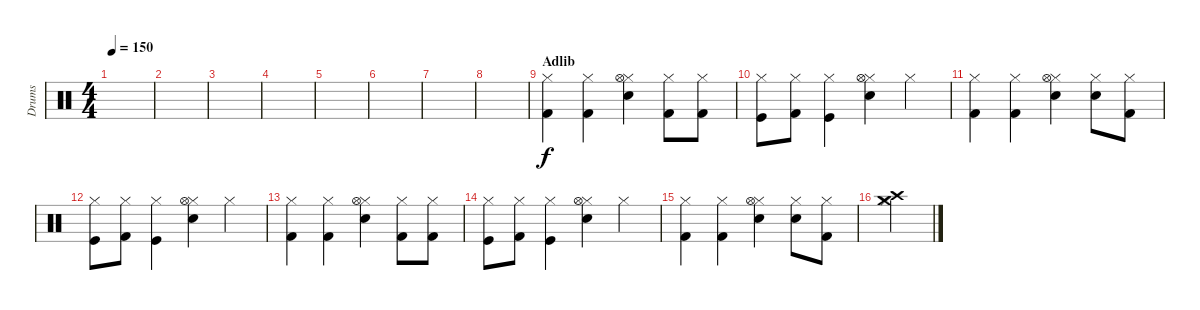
\track ("Drums" "Drums") {instrument percussion}
\staff {score}
\articulation defaults
\ts (4 4)
\tempo 150
\clef neutral
\ks c
|
|
|
|
|
|
|
|
\section ("" "Adlib")
("Kick (hit) 2" "Hi-Hat (closed)").4 ("Kick (hit) 2" "Hi-Hat (closed)").4 ("Snare (hit) 2" "Hi-Hat (closed)" "Hi-Hat (open)").4 ("Kick (hit) 2" "Hi-Hat (closed)").8 ("Kick (hit) 2" "Hi-Hat (closed)").8 |
("Kick (hit)" "Hi-Hat (closed)").8 ("Kick (hit) 2" "Hi-Hat (closed)").8 ("Kick (hit)" "Hi-Hat (closed)").4 ("Snare (hit) 2" "Hi-Hat (closed)" "Hi-Hat (open)").4 "Hi-Hat (closed)".4 |
("Kick (hit) 2" "Hi-Hat (closed)").4 ("Kick (hit) 2" "Hi-Hat (closed)").4 ("Snare (hit) 2" "Hi-Hat (closed)" "Hi-Hat (open)").4 ("Snare (hit) 2" "Hi-Hat (closed)").8 ("Kick (hit) 2" "Hi-Hat (closed)").8 |
("Kick (hit)" "Hi-Hat (closed)").8 ("Kick (hit) 2" "Hi-Hat (closed)").8 ("Kick (hit)" "Hi-Hat (closed)").4 ("Snare (hit) 2" "Hi-Hat (closed)" "Hi-Hat (open)").4 "Hi-Hat (closed)".4 |
("Kick (hit) 2" "Hi-Hat (closed)").4 ("Kick (hit) 2" "Hi-Hat (closed)").4 ("Snare (hit) 2" "Hi-Hat (closed)" "Hi-Hat (open)").4 ("Kick (hit) 2" "Hi-Hat (closed)").8 ("Kick (hit) 2" "Hi-Hat (closed)").8 |
("Kick (hit)" "Hi-Hat (closed)").8 ("Kick (hit) 2" "Hi-Hat (closed)").8 ("Kick (hit)" "Hi-Hat (closed)").4 ("Snare (hit) 2" "Hi-Hat (closed)" "Hi-Hat (open)").4 "Hi-Hat (closed)".4 |
("Kick (hit) 2" "Hi-Hat (closed)").4 ("Kick (hit) 2" "Hi-Hat (closed)").4 ("Snare (hit) 2" "Hi-Hat (closed)" "Hi-Hat (open)").4 ("Snare (hit) 2" "Hi-Hat (closed)").8 ("Kick (hit) 2" "Hi-Hat (closed)").8 |
("Crash medium (hit)" "Hi-Hat (closed)" "Crash high (hit)").4
